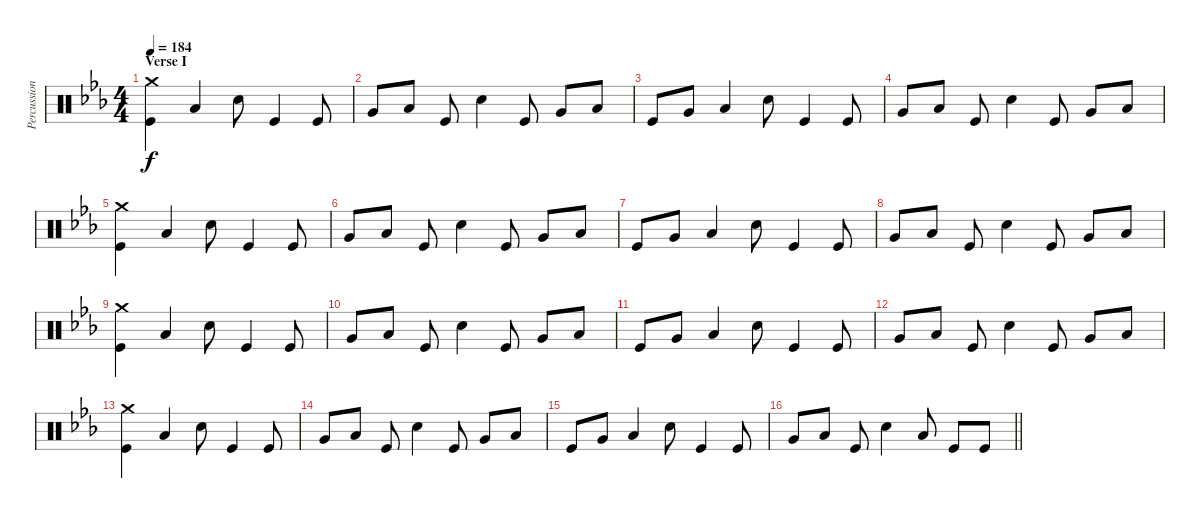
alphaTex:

\track ("Percussion" "Percussion") {instrument percussion}
\staff {score}
\articulation defaults
\ts (4 4)
\section ("" "Verse I")
\tempo 184
\clef neutral
\ks eb
("Crash medium (hit)" "Kick (hit)").4{dy f} "Low Floor Tom (hit)".4 "Electric Snare (hit)".8 "Kick (hit)".4 "Kick (hit)".8 |
"Very Low Tom (hit)".8 "Low Floor Tom (hit)".8 "Kick (hit)".8 "Electric Snare (hit)".4 "Kick (hit)".8 "Very Low Tom (hit)".8 "Low Floor Tom (hit)".8 |
"Kick (hit)".8 "Very Low Tom (hit)".8 "Low Floor Tom (hit)".4 "Electric Snare (hit)".8 "Kick (hit)".4 "Kick (hit)".8 |
"Very Low Tom (hit)".8 "Low Floor Tom (hit)".8 "Kick (hit)".8 "Electric Snare (hit)".4 "Kick (hit)".8 "Very Low Tom (hit)".8 "Low Floor Tom (hit)".8 |
("Crash medium (hit)" "Kick (hit)").4 "Low Floor Tom (hit)".4 "Electric Snare (hit)".8 "Kick (hit)".4 "Kick (hit)".8 |
"Very Low Tom (hit)".8 "Low Floor Tom (hit)".8 "Kick (hit)".8 "Electric Snare (hit)".4 "Kick (hit)".8 "Very Low Tom (hit)".8 "Low Floor Tom (hit)".8 |
"Kick (hit)".8 "Very Low Tom (hit)".8 "Low Floor Tom (hit)".4 "Electric Snare (hit)".8 "Kick (hit)".4 "Kick (hit)".8 |
"Very Low Tom (hit)".8 "Low Floor Tom (hit)".8 "Kick (hit)".8 "Electric Snare (hit)".4 "Kick (hit)".8 "Very Low Tom (hit)".8 "Low Floor Tom (hit)".8 |
("Crash medium (hit)" "Kick (hit)").4 "Low Floor Tom (hit)".4 "Electric Snare (hit)".8 "Kick (hit)".4 "Kick (hit)".8 |
"Very Low Tom (hit)".8 "Low Floor Tom (hit)".8 "Kick (hit)".8 "Electric Snare (hit)".4 "Kick (hit)".8 "Very Low Tom (hit)".8 "Low Floor Tom (hit)".8 |
"Kick (hit)".8 "Very Low Tom (hit)".8 "Low Floor Tom (hit)".4 "Electric Snare (hit)".8 "Kick (hit)".4 "Kick (hit)".8 |
"Very Low Tom (hit)".8 "Low Floor Tom (hit)".8 "Kick (hit)".8 "Electric Snare (hit)".4 "Kick (hit)".8 "Very Low Tom (hit)".8 "Low Floor Tom (hit)".8 |
("Crash medium (hit)" "Kick (hit)").4 "Low Floor Tom (hit)".4 "Electric Snare (hit)".8 "Kick (hit)".4 "Kick (hit)".8 |
"Very Low Tom (hit)".8 "Low Floor Tom (hit)".8 "Kick (hit)".8 "Electric Snare (hit)".4 "Kick (hit)".8 "Very Low Tom (hit)".8 "Low Floor Tom (hit)".8 |
"Kick (hit)".8 "Very Low Tom (hit)".8 "Low Floor Tom (hit)".4 "Electric Snare (hit)".8 "Kick (hit)".4 "Kick (hit)".8 |
\barLineRight lightlight "Very Low Tom (hit)".8 "Low Floor Tom (hit)".8 "Kick (hit)".8 "Electric Snare (hit)".4 "Low Floor Tom (hit)".8 "Kick (hit)".8 "Kick (hit)".8
